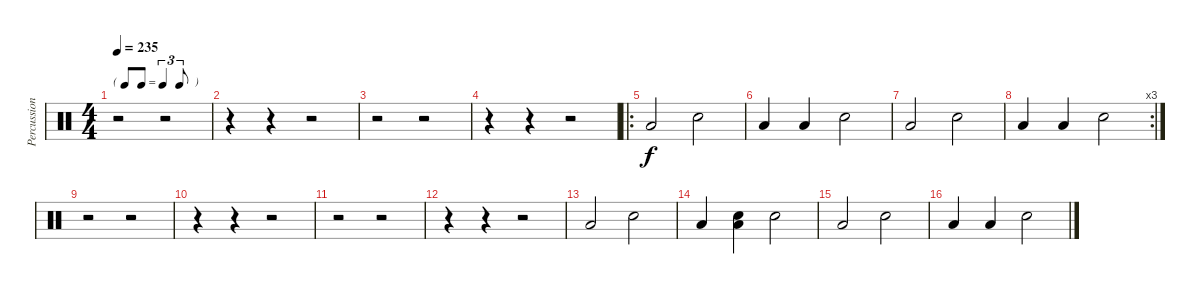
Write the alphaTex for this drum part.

\track ("Percussions" "Percussion") {instrument percussion}
\staff {score}
\articulation defaults
\ts (4 4)
\tf triplet8th
\tempo 235
\clef neutral
\ks c
r.2{dy f} r.2 |
r.4 r.4 r.2 |
r.2 r.2 |
r.4 r.4 r.2 |
\ro "Low Tom (hit)".2 "Snare (hit) 2".2
|
"Low Tom (hit)".4 "Low Tom (hit)".4 "Snare (hit) 2".2 |
"Low Tom (hit)".2 "Snare (hit) 2".2 |
\rc 3 "Low Tom (hit)".4 "Low Tom (hit)".4 "Snare (hit) 2".2
|
r.2 r.2 |
r.4 r.4 r.2 |
r.2 r.2 |
r.4 r.4 r.2 |
"Low Tom (hit)".2 "Snare (hit) 2".2 |
"Low Tom (hit)".4 ("Snare (hit)" "Low Tom (hit)").4 "Snare (hit) 2".2 |
"Low Tom (hit)".2 "Snare (hit) 2".2 |
"Low Tom (hit)".4 "Low Tom (hit)".4 "Snare (hit) 2".2
